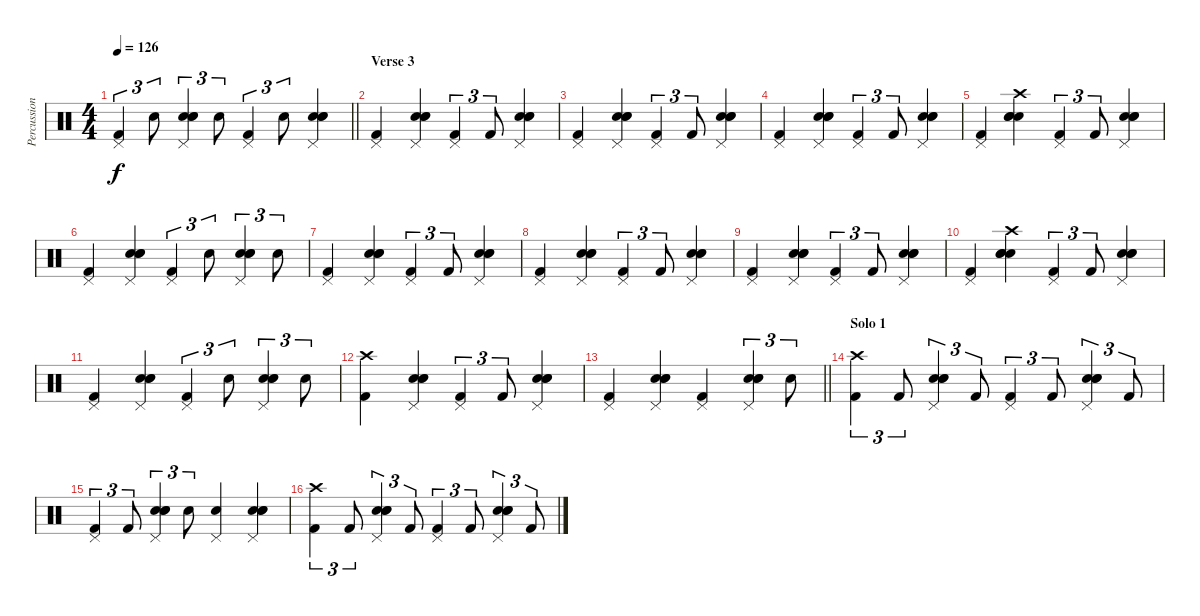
\track ("Percussion" "Percussion") {instrument percussion}
\staff {score}
\articulation defaults
\ts (4 4)
\tempo 126
\clef neutral
\barLineRight lightlight
\ks c
("Pedal Hi-Hat (hit)" "Kick (hit) 2").4{tu (3 2) dy f} "Electric Snare (hit)".8{tu (3 2)} ("Pedal Hi-Hat (hit)" "Electric Snare (hit)" "Hand Clap (hit)" "Hand Clap (hit)").4{tu (3 2)} "Electric Snare (hit)".8{tu (3 2)} ("Pedal Hi-Hat (hit)" "Kick (hit) 2").4{tu (3 2)} "Electric Snare (hit)".8{tu (3 2)} ("Pedal Hi-Hat (hit)" "Electric Snare (hit)" "Hand Clap (hit)" "Hand Clap (hit)").4 |
\section ("" "Verse 3")
("Pedal Hi-Hat (hit)" "Kick (hit) 2").4 ("Pedal Hi-Hat (hit)" "Electric Snare (hit)" "Hand Clap (hit)" "Hand Clap (hit)").4 ("Pedal Hi-Hat (hit)" "Kick (hit) 2").4{tu (3 2)} "Kick (hit) 2".8{tu (3 2)} ("Pedal Hi-Hat (hit)" "Electric Snare (hit)" "Hand Clap (hit)" "Hand Clap (hit)").4 |
("Pedal Hi-Hat (hit)" "Kick (hit) 2").4 ("Pedal Hi-Hat (hit)" "Electric Snare (hit)" "Hand Clap (hit)" "Hand Clap (hit)").4 ("Pedal Hi-Hat (hit)" "Kick (hit) 2").4{tu (3 2)} "Kick (hit) 2".8{tu (3 2)} ("Pedal Hi-Hat (hit)" "Electric Snare (hit)" "Hand Clap (hit)" "Hand Clap (hit)").4 |
("Pedal Hi-Hat (hit)" "Kick (hit) 2").4 ("Pedal Hi-Hat (hit)" "Electric Snare (hit)" "Hand Clap (hit)" "Hand Clap (hit)").4 ("Pedal Hi-Hat (hit)" "Kick (hit) 2").4{tu (3 2)} "Kick (hit) 2".8{tu (3 2)} ("Pedal Hi-Hat (hit)" "Electric Snare (hit)" "Hand Clap (hit)" "Hand Clap (hit)").4 |
("Pedal Hi-Hat (hit)" "Kick (hit) 2").4 ("Crash high (hit)" "Electric Snare (hit)" "Hand Clap (hit)" "Hand Clap (hit)").4 ("Pedal Hi-Hat (hit)" "Kick (hit) 2").4{tu (3 2)} "Kick (hit) 2".8{tu (3 2)} ("Pedal Hi-Hat (hit)" "Electric Snare (hit)" "Hand Clap (hit)" "Hand Clap (hit)").4 |
("Pedal Hi-Hat (hit)" "Kick (hit) 2").4 ("Pedal Hi-Hat (hit)" "Electric Snare (hit)" "Hand Clap (hit)" "Hand Clap (hit)").4 ("Pedal Hi-Hat (hit)" "Kick (hit) 2").4{tu (3 2)} "Electric Snare (hit)".8{tu (3 2)} ("Pedal Hi-Hat (hit)" "Electric Snare (hit)" "Hand Clap (hit)" "Hand Clap (hit)").4{tu (3 2)} "Electric Snare (hit)".8{tu (3 2)} |
("Pedal Hi-Hat (hit)" "Kick (hit) 2").4 ("Pedal Hi-Hat (hit)" "Electric Snare (hit)" "Hand Clap (hit)" "Hand Clap (hit)").4 ("Pedal Hi-Hat (hit)" "Kick (hit) 2").4{tu (3 2)} "Kick (hit) 2".8{tu (3 2)} ("Pedal Hi-Hat (hit)" "Electric Snare (hit)" "Hand Clap (hit)" "Hand Clap (hit)").4 |
("Pedal Hi-Hat (hit)" "Kick (hit) 2").4 ("Pedal Hi-Hat (hit)" "Electric Snare (hit)" "Hand Clap (hit)" "Hand Clap (hit)").4 ("Pedal Hi-Hat (hit)" "Kick (hit) 2").4{tu (3 2)} "Kick (hit) 2".8{tu (3 2)} ("Pedal Hi-Hat (hit)" "Electric Snare (hit)" "Hand Clap (hit)" "Hand Clap (hit)").4 |
("Pedal Hi-Hat (hit)" "Kick (hit) 2").4 ("Pedal Hi-Hat (hit)" "Electric Snare (hit)" "Hand Clap (hit)" "Hand Clap (hit)").4 ("Pedal Hi-Hat (hit)" "Kick (hit) 2").4{tu (3 2)} "Kick (hit) 2".8{tu (3 2)} ("Pedal Hi-Hat (hit)" "Electric Snare (hit)" "Hand Clap (hit)" "Hand Clap (hit)").4 |
("Pedal Hi-Hat (hit)" "Kick (hit) 2").4 ("Crash high (hit)" "Electric Snare (hit)" "Hand Clap (hit)" "Hand Clap (hit)").4 ("Pedal Hi-Hat (hit)" "Kick (hit) 2").4{tu (3 2)} "Kick (hit) 2".8{tu (3 2)} ("Pedal Hi-Hat (hit)" "Electric Snare (hit)" "Hand Clap (hit)" "Hand Clap (hit)").4 |
("Pedal Hi-Hat (hit)" "Kick (hit) 2").4 ("Pedal Hi-Hat (hit)" "Electric Snare (hit)" "Hand Clap (hit)" "Hand Clap (hit)").4 ("Pedal Hi-Hat (hit)" "Kick (hit) 2").4{tu (3 2)} "Electric Snare (hit)".8{tu (3 2)} ("Pedal Hi-Hat (hit)" "Electric Snare (hit)" "Hand Clap (hit)" "Hand Clap (hit)").4{tu (3 2)} "Electric Snare (hit)".8{tu (3 2)} |
("Crash high (hit)" "Kick (hit) 2").4 ("Pedal Hi-Hat (hit)" "Electric Snare (hit)" "Hand Clap (hit)" "Hand Clap (hit)").4 ("Pedal Hi-Hat (hit)" "Kick (hit) 2").4{tu (3 2)} "Kick (hit) 2".8{tu (3 2)} ("Pedal Hi-Hat (hit)" "Electric Snare (hit)" "Hand Clap (hit)" "Hand Clap (hit)").4 |
\barLineRight lightlight
("Pedal Hi-Hat (hit)" "Kick (hit) 2").4 ("Pedal Hi-Hat (hit)" "Electric Snare (hit)" "Hand Clap (hit)" "Hand Clap (hit)").4 ("Pedal Hi-Hat (hit)" "Kick (hit) 2").4 ("Pedal Hi-Hat (hit)" "Electric Snare (hit)" "Hand Clap (hit)" "Hand Clap (hit)").4{tu (3 2)} "Electric Snare (hit)".8{tu (3 2)} |
\section ("" "Solo 1")
("Crash high (hit)" "Kick (hit) 2").4{tu (3 2)} "Kick (hit) 2".8{tu (3 2)} ("Pedal Hi-Hat (hit)" "Electric Snare (hit)" "Hand Clap (hit)" "Hand Clap (hit)").4{tu (3 2)} "Kick (hit) 2".8{tu (3 2)} ("Pedal Hi-Hat (hit)" "Kick (hit) 2").4{tu (3 2)} "Kick (hit) 2".8{tu (3 2)} ("Pedal Hi-Hat (hit)" "Electric Snare (hit)" "Hand Clap (hit)" "Hand Clap (hit)").4{tu (3 2)} "Kick (hit) 2".8{tu (3 2)} |
("Pedal Hi-Hat (hit)" "Kick (hit) 2").4{tu (3 2)} "Kick (hit) 2".8{tu (3 2)} ("Pedal Hi-Hat (hit)" "Electric Snare (hit)" "Hand Clap (hit)" "Hand Clap (hit)").4{tu (3 2)} "Electric Snare (hit)".8{tu (3 2)} ("Pedal Hi-Hat (hit)" "Electric Snare (hit)").4 ("Pedal Hi-Hat (hit)" "Electric Snare (hit)" "Hand Clap (hit)" "Hand Clap (hit)").4 |
("Crash high (hit)" "Kick (hit) 2").4{tu (3 2)} "Kick (hit) 2".8{tu (3 2)} ("Pedal Hi-Hat (hit)" "Electric Snare (hit)" "Hand Clap (hit)" "Hand Clap (hit)").4{tu (3 2)} "Kick (hit) 2".8{tu (3 2)} ("Pedal Hi-Hat (hit)" "Kick (hit) 2").4{tu (3 2)} "Kick (hit) 2".8{tu (3 2)} ("Pedal Hi-Hat (hit)" "Electric Snare (hit)" "Hand Clap (hit)" "Hand Clap (hit)").4{tu (3 2)} "Kick (hit) 2".8{tu (3 2)}
